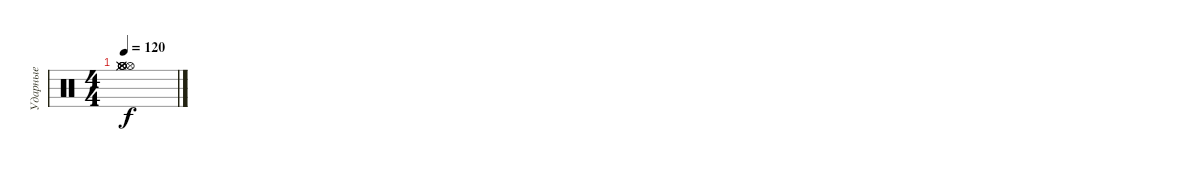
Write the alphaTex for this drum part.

\track ("Ударные" "Ударные") {instrument percussion}
\staff {score}
\articulation defaults
\ts (4 4)
\tempo 120
\clef neutral
\ks c
("Hi-Hat (open)" "Hi-Hat (closed)" "Hi-Hat (closed)" "Hi-Hat (open)" "Hi-Hat (open)" "Hi-Hat (open)").1{dy f}
